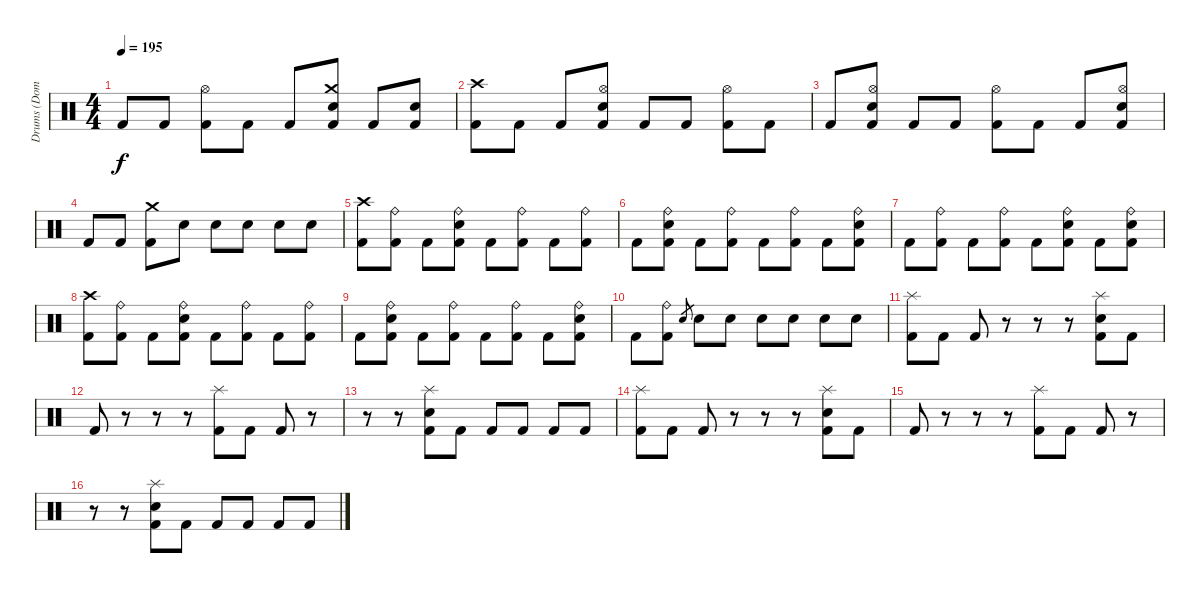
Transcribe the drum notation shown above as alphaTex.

\track ("Drums (Dominik)" "Drums (Dom") {instrument percussion}
\staff {score}
\articulation defaults
\ts (4 4)
\tempo 195
\clef neutral
\ks c "Kick (hit) 2".8{dy f} "Kick (hit) 2".8
("Hi-Hat (open)" "Kick (hit) 2").8 "Kick (hit) 2".8 "Kick (hit) 2".8 ("Crash medium (hit)" "Electric Snare (hit)" "Kick (hit) 2").8 "Kick (hit) 2".8 ("Electric Snare (hit)" "Kick (hit) 2").8 |
("Crash high (hit)" "Kick (hit) 2").8 "Kick (hit) 2".8 "Kick (hit) 2".8 ("Hi-Hat (open)" "Electric Snare (hit)" "Kick (hit) 2").8 "Kick (hit) 2".8 "Kick (hit) 2".8 ("Hi-Hat (open)" "Kick (hit) 2").8 "Kick (hit) 2".8 |
"Kick (hit) 2".8 ("Hi-Hat (open)" "Electric Snare (hit)" "Kick (hit) 2").8 "Kick (hit) 2".8 "Kick (hit) 2".8 ("Hi-Hat (open)" "Kick (hit) 2").8 "Kick (hit) 2".8 "Kick (hit) 2".8 ("Hi-Hat (open)" "Electric Snare (hit)" "Kick (hit) 2").8 |
"Kick (hit) 2".8 "Kick (hit) 2".8 ("Crash medium (hit)" "Kick (hit) 2").8 "Electric Snare (hit)".8 "Electric Snare (hit)".8 "Electric Snare (hit)".8 "Electric Snare (hit)".8 "Electric Snare (hit)".8 |
("Crash high (hit)" "Kick (hit) 2").8 ("Ride (bell)" "Kick (hit) 2").8 "Kick (hit) 2".8 ("Ride (bell)" "Electric Snare (hit)" "Kick (hit) 2").8 "Kick (hit) 2".8 ("Ride (bell)" "Kick (hit) 2").8 "Kick (hit) 2".8 ("Ride (bell)" "Kick (hit) 2").8 |
"Kick (hit) 2".8 ("Ride (bell)" "Electric Snare (hit)" "Kick (hit) 2").8 "Kick (hit) 2".8 ("Ride (bell)" "Kick (hit) 2").8 "Kick (hit) 2".8 ("Ride (bell)" "Kick (hit) 2").8 "Kick (hit) 2".8 ("Ride (bell)" "Electric Snare (hit)" "Kick (hit) 2").8 |
"Kick (hit) 2".8 ("Ride (bell)" "Kick (hit) 2").8 "Kick (hit) 2".8 ("Ride (bell)" "Kick (hit) 2").8 "Kick (hit) 2".8 ("Ride (bell)" "Electric Snare (hit)" "Kick (hit) 2").8 "Kick (hit) 2".8 ("Ride (bell)" "Electric Snare (hit)" "Kick (hit) 2").8 |
("Crash high (hit)" "Kick (hit) 2").8 ("Ride (bell)" "Kick (hit) 2").8 "Kick (hit) 2".8 ("Ride (bell)" "Electric Snare (hit)" "Kick (hit) 2").8 "Kick (hit) 2".8 ("Ride (bell)" "Kick (hit) 2").8 "Kick (hit) 2".8 ("Ride (bell)" "Kick (hit) 2").8 |
"Kick (hit) 2".8 ("Ride (bell)" "Electric Snare (hit)" "Kick (hit) 2").8 "Kick (hit) 2".8 ("Ride (bell)" "Kick (hit) 2").8 "Kick (hit) 2".8 ("Ride (bell)" "Kick (hit) 2").8 "Kick (hit) 2".8 ("Ride (bell)" "Electric Snare (hit)" "Kick (hit) 2").8 |
"Kick (hit) 2".8 ("Ride (bell)" "Kick (hit) 2").8 "Electric Snare (hit)".8{gr} "Electric Snare (hit)".8 "Electric Snare (hit)".8 "Electric Snare (hit)".8 "Electric Snare (hit)".8 "Electric Snare (hit)".8 "Electric Snare (hit)".8 |
("Splash (hit)" "Kick (hit) 2").8 "Kick (hit) 2".8 "Kick (hit) 2".8 r.8 r.8 r.8 ("Splash (hit)" "Electric Snare (hit)" "Kick (hit) 2").8 "Kick (hit) 2".8 |
"Kick (hit) 2".8 r.8 r.8 r.8 ("Splash (hit)" "Kick (hit) 2").8 "Kick (hit) 2".8 "Kick (hit) 2".8 r.8 |
r.8 r.8 ("Splash (hit)" "Electric Snare (hit)" "Kick (hit) 2").8 "Kick (hit) 2".8 "Kick (hit) 2".8 "Kick (hit) 2".8 "Kick (hit) 2".8 "Kick (hit) 2".8 |
("Splash (hit)" "Kick (hit) 2").8 "Kick (hit) 2".8 "Kick (hit) 2".8 r.8 r.8 r.8 ("Splash (hit)" "Electric Snare (hit)" "Kick (hit) 2").8 "Kick (hit) 2".8 |
"Kick (hit) 2".8 r.8 r.8 r.8 ("Splash (hit)" "Kick (hit) 2").8 "Kick (hit) 2".8 "Kick (hit) 2".8 r.8 |
r.8 r.8 ("Splash (hit)" "Electric Snare (hit)" "Kick (hit) 2").8 "Kick (hit) 2".8 "Kick (hit) 2".8 "Kick (hit) 2".8 "Kick (hit) 2".8 "Kick (hit) 2".8
